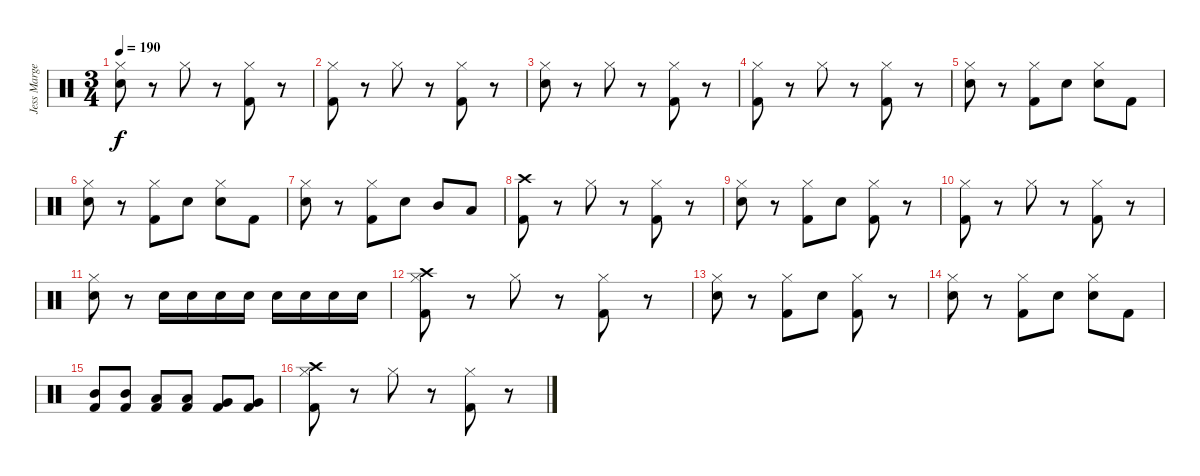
\track ("Jess Margera" "Jess Marge") {instrument percussion}
\staff {score}
\articulation defaults
\ts (3 4)
\tempo 190
\clef neutral
\ks c
("Hi-Hat (closed)" "Electric Snare (hit)").8{dy f} r.8 "Hi-Hat (closed)".8 r.8 ("Hi-Hat (closed)" "Kick (hit) 2").8 r.8 |
("Hi-Hat (closed)" "Kick (hit) 2").8 r.8 "Hi-Hat (closed)".8 r.8 ("Hi-Hat (closed)" "Kick (hit) 2").8 r.8 |
("Hi-Hat (closed)" "Electric Snare (hit)").8 r.8 "Hi-Hat (closed)".8 r.8 ("Hi-Hat (closed)" "Kick (hit) 2").8 r.8 |
("Hi-Hat (closed)" "Kick (hit) 2").8 r.8 "Hi-Hat (closed)".8 r.8 ("Hi-Hat (closed)" "Kick (hit) 2").8 r.8 |
("Hi-Hat (closed)" "Electric Snare (hit)").8 r.8 ("Hi-Hat (closed)" "Kick (hit) 2").8 "Electric Snare (hit)".8 ("Hi-Hat (closed)" "Electric Snare (hit)").8 "Kick (hit) 2".8 |
("Hi-Hat (closed)" "Electric Snare (hit)").8 r.8 ("Hi-Hat (closed)" "Kick (hit) 2").8 "Electric Snare (hit)".8 ("Hi-Hat (closed)" "Electric Snare (hit)").8 "Kick (hit) 2".8 |
("Hi-Hat (closed)" "Electric Snare (hit)").8 r.8 ("Hi-Hat (closed)" "Kick (hit) 2").8 "Electric Snare (hit)".8 "Mid Tom (hit)".8 "Low Tom (hit)".8 |
("Crash high (hit)" "Kick (hit) 2").8 r.8 "Hi-Hat (closed)".8 r.8 ("Hi-Hat (closed)" "Kick (hit) 2").8 r.8 |
("Hi-Hat (closed)" "Electric Snare (hit)").8 r.8 ("Hi-Hat (closed)" "Kick (hit) 2").8 "Electric Snare (hit)".8 ("Hi-Hat (closed)" "Kick (hit) 2").8 r.8 |
("Hi-Hat (closed)" "Kick (hit) 2").8 r.8 "Hi-Hat (closed)".8 r.8 ("Hi-Hat (closed)" "Kick (hit) 2").8 r.8 |
("Hi-Hat (closed)" "Electric Snare (hit)").8 r.8 "Electric Snare (hit)".16 "Electric Snare (hit)".16 "Electric Snare (hit)".16 "Electric Snare (hit)".16 "Electric Snare (hit)".16 "Electric Snare (hit)".16 "Electric Snare (hit)".16 "Electric Snare (hit)".16 |
("Crash high (hit)" "Hi-Hat (closed)" "Kick (hit) 2").8 r.8 "Hi-Hat (closed)".8 r.8 ("Hi-Hat (closed)" "Kick (hit) 2").8 r.8 |
("Hi-Hat (closed)" "Electric Snare (hit)").8 r.8 ("Hi-Hat (closed)" "Kick (hit) 2").8 "Electric Snare (hit)".8 ("Hi-Hat (closed)" "Kick (hit) 2").8 r.8 |
("Hi-Hat (closed)" "Electric Snare (hit)").8 r.8 ("Hi-Hat (closed)" "Kick (hit) 2").8 "Electric Snare (hit)".8 ("Hi-Hat (closed)" "Electric Snare (hit)").8 "Kick (hit) 2".8 |
("Mid Tom (hit)" "Kick (hit) 2").8 ("Mid Tom (hit)" "Kick (hit) 2").8 ("Low Tom (hit)" "Kick (hit) 2").8 ("Low Tom (hit)" "Kick (hit) 2").8 ("Very Low Tom (hit)" "Kick (hit) 2").8 ("Very Low Tom (hit)" "Kick (hit) 2").8 |
("Crash high (hit)" "Hi-Hat (closed)" "Kick (hit) 2").8 r.8 "Hi-Hat (closed)".8 r.8 ("Hi-Hat (closed)" "Kick (hit) 2").8 r.8
